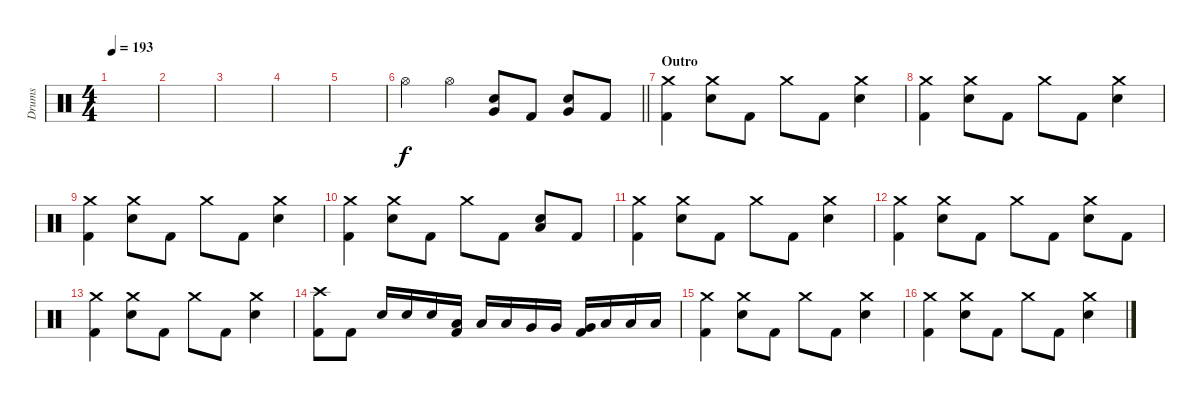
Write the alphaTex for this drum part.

\track ("Drums" "Drums") {instrument percussion}
\staff {score}
\articulation defaults
\ts (4 4)
\tempo 193
\clef neutral
\ks c
|
|
|
|
|
\barLineRight lightlight "Hi-Hat (open)".4 "Hi-Hat (open)".4
("Very Low Tom (hit)" "Electric Snare (hit)").8 "Kick (hit) 2".8 ("Very Low Tom (hit)" "Electric Snare (hit)").8 "Kick (hit) 2".8 |
\section ("" "Outro")
("Crash medium (hit)" "Kick (hit) 2").4 ("Crash medium (hit)" "Electric Snare (hit)").8 "Kick (hit) 2".8 "Crash medium (hit)".8 "Kick (hit) 2".8 ("Crash medium (hit)" "Electric Snare (hit)").4 |
("Crash medium (hit)" "Kick (hit) 2").4 ("Crash medium (hit)" "Electric Snare (hit)").8 "Kick (hit) 2".8 "Crash medium (hit)".8 "Kick (hit) 2".8 ("Crash medium (hit)" "Electric Snare (hit)").4 |
("Crash medium (hit)" "Kick (hit) 2").4 ("Crash medium (hit)" "Electric Snare (hit)").8 "Kick (hit) 2".8 "Crash medium (hit)".8 "Kick (hit) 2".8 ("Crash medium (hit)" "Electric Snare (hit)").4 |
("Crash medium (hit)" "Kick (hit) 2").4 ("Crash medium (hit)" "Electric Snare (hit)").8 "Kick (hit) 2".8 "Crash medium (hit)".8 "Kick (hit) 2".8 ("Low Floor Tom (hit)" "Electric Snare (hit)").8 "Kick (hit) 2".8 |
("Crash medium (hit)" "Kick (hit) 2").4 ("Crash medium (hit)" "Electric Snare (hit)").8 "Kick (hit) 2".8 "Crash medium (hit)".8 "Kick (hit) 2".8 ("Crash medium (hit)" "Electric Snare (hit)").4 |
("Crash medium (hit)" "Kick (hit) 2").4 ("Crash medium (hit)" "Electric Snare (hit)").8 "Kick (hit) 2".8 "Crash medium (hit)".8 "Kick (hit) 2".8 ("Crash medium (hit)" "Electric Snare (hit)").8 "Kick (hit) 2".8 |
("Crash medium (hit)" "Kick (hit) 2").4 ("Crash medium (hit)" "Electric Snare (hit)").8 "Kick (hit) 2".8 "Crash medium (hit)".8 "Kick (hit) 2".8 ("Crash medium (hit)" "Electric Snare (hit)").4 |
("Crash high (hit)" "Kick (hit) 2").8 "Kick (hit) 2".8 "Electric Snare (hit)".16 "Electric Snare (hit)".16 "Electric Snare (hit)".16 ("Low Tom (hit)" "Kick (hit) 2").16 "Low Tom (hit)".16 "Low Tom (hit)".16 "Very Low Tom (hit)".16 "Very Low Tom (hit)".16 ("Very Low Tom (hit)" "Kick (hit) 2").16 "Low Floor Tom (hit)".16 "Low Floor Tom (hit)".16 "Low Floor Tom (hit)".16 |
("Crash medium (hit)" "Kick (hit) 2").4 ("Crash medium (hit)" "Electric Snare (hit)").8 "Kick (hit) 2".8 "Crash medium (hit)".8 "Kick (hit) 2".8 ("Crash medium (hit)" "Electric Snare (hit)").4 |
("Crash medium (hit)" "Kick (hit) 2").4 ("Crash medium (hit)" "Electric Snare (hit)").8 "Kick (hit) 2".8 "Crash medium (hit)".8 "Kick (hit) 2".8 ("Crash medium (hit)" "Electric Snare (hit)").4
